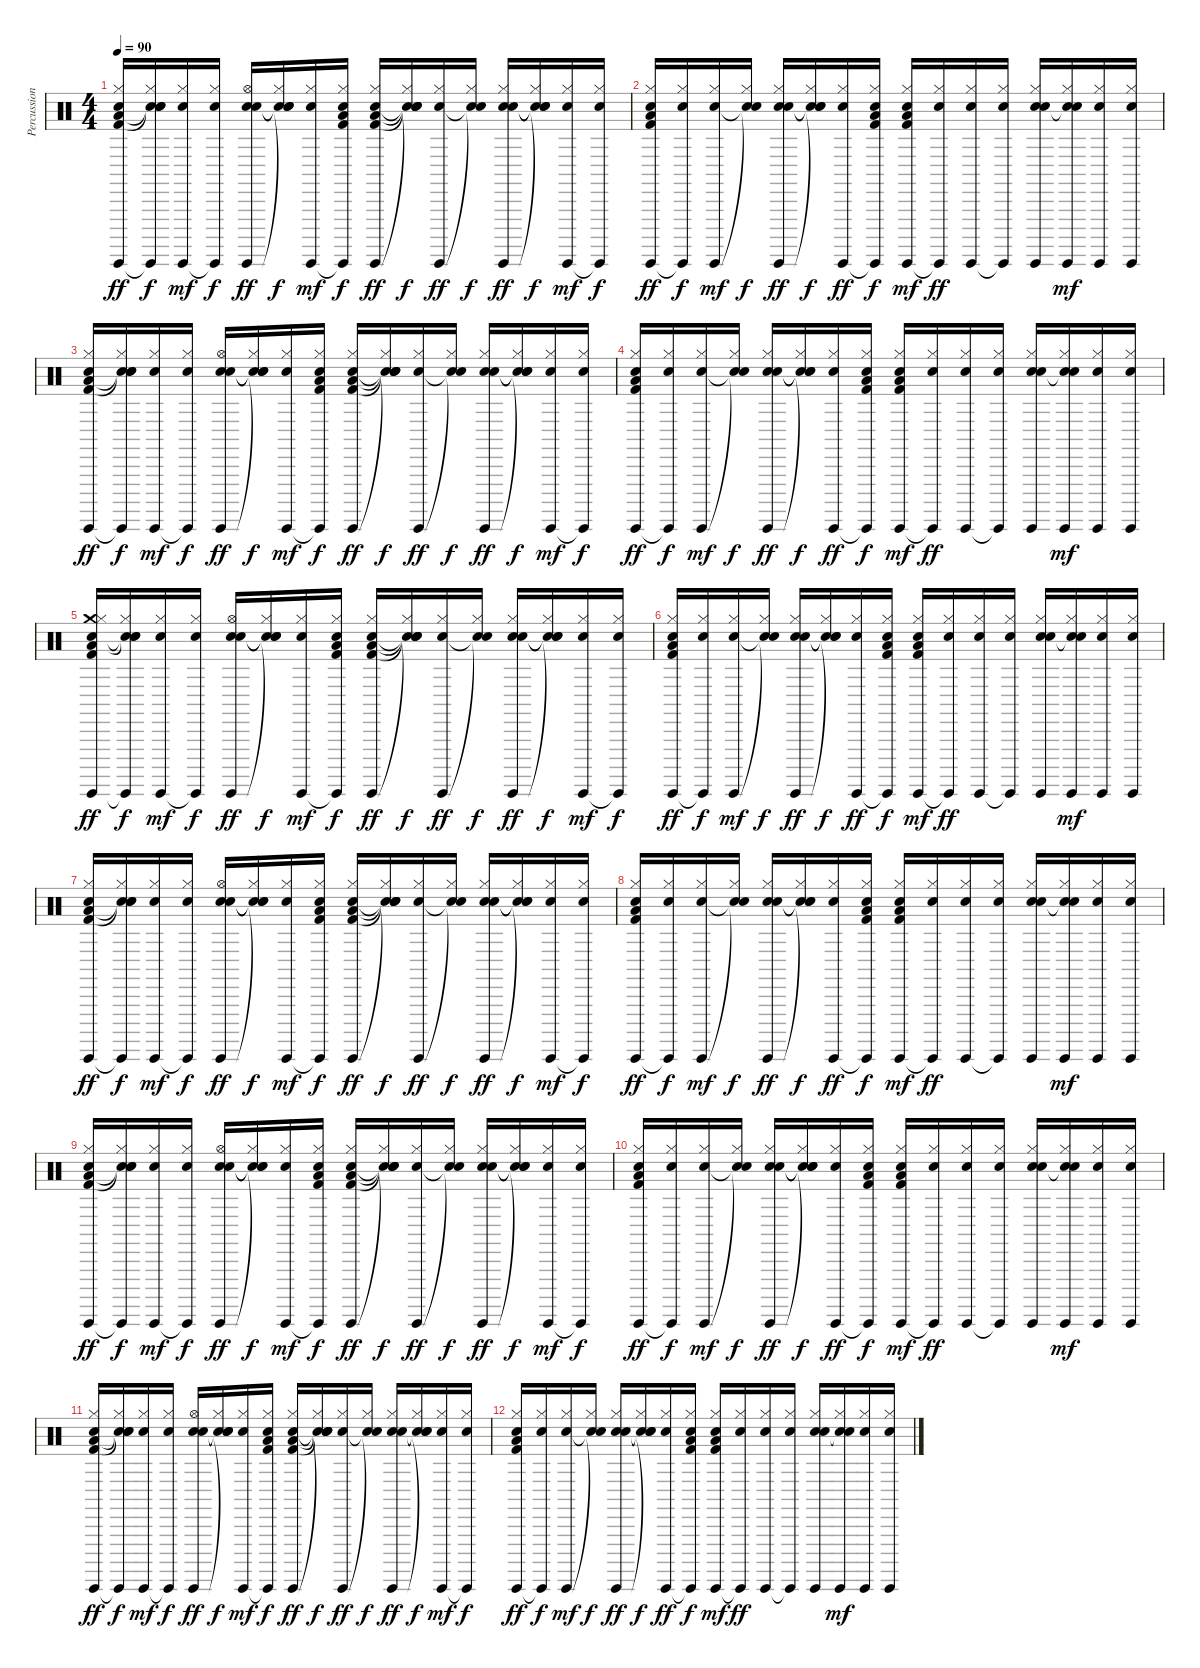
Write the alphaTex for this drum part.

\track ("Percussion" "Percussion") {instrument percussion}
\staff {score}
\articulation defaults
\ts (4 4)
\tempo 90
\clef neutral
\ks c
("Guiro (hit)" "Hi-Hat (closed)" "Hand Clap (hit)" "Low Floor Tom (hit)" "Kick (hit) 2").16{dy ff} ("Guiro (hit)"{t} "Hi-Hat (closed)" "Hand Clap (hit)" "Snare (hit)"{t} "Snare (hit)"{t}).16{dy f} ("Guiro (hit)" "Hi-Hat (closed)" "Hand Clap (hit)").16{dy mf} ("Guiro (hit)"{t} "Hi-Hat (closed)" "Hand Clap (hit)").16{dy f} ("Guiro (hit)" "Hi-Hat (open)" "Hand Clap (hit)" "Snare (hit) 2").16{dy ff} ("Snare (hit)"{t} "Hi-Hat (closed)" "Snare (hit)"{t} "Snare (hit)"{t}).16{dy f} ("Guiro (hit)" "Hi-Hat (closed)" "Hand Clap (hit)").16{dy mf} ("Guiro (hit)"{t} "Hi-Hat (closed)" "Hand Clap (hit)" "Low Floor Tom (hit)" "Kick (hit) 2").16{dy f} ("Guiro (hit)" "Hi-Hat (closed)" "Hand Clap (hit)" "Low Floor Tom (hit)" "Kick (hit) 2").16{dy ff} ("Snare (hit)"{t} "Hi-Hat (closed)" "Snare (hit)"{t} "Snare (hit)"{t} "Snare (hit)"{t}).16{dy f} ("Guiro (hit)" "Hi-Hat (closed)" "Hand Clap (hit)").16{dy ff} ("Snare (hit)"{t} "Hi-Hat (closed)" "Snare (hit)"{t}).16{dy f} ("Guiro (hit)" "Hi-Hat (closed)" "Hand Clap (hit)" "Snare (hit) 2").16{dy ff} ("Snare (hit)"{t} "Hi-Hat (closed)" "Snare (hit)"{t} "Snare (hit)"{t}).16{dy f} ("Guiro (hit)" "Hi-Hat (closed)" "Hand Clap (hit)").16{dy mf} ("Guiro (hit)"{t} "Hi-Hat (closed)" "Hand Clap (hit)").16{dy f} |
("Guiro (hit)" "Hi-Hat (closed)" "Hand Clap (hit)" "Low Floor Tom (hit)" "Kick (hit) 2").16{dy ff} ("Guiro (hit)"{t} "Hi-Hat (closed)" "Hand Clap (hit)").16{dy f} ("Guiro (hit)" "Hi-Hat (closed)" "Hand Clap (hit)").16{dy mf} ("Snare (hit)"{t} "Hi-Hat (closed)" "Snare (hit)"{t}).16{dy f} ("Guiro (hit)" "Hi-Hat (closed)" "Hand Clap (hit)" "Snare (hit) 2").16{dy ff} ("Snare (hit)"{t} "Hi-Hat (closed)" "Snare (hit)"{t} "Snare (hit)"{t}).16{dy f} ("Guiro (hit)" "Hi-Hat (closed)" "Hand Clap (hit)").16{dy ff} ("Guiro (hit)"{t} "Hi-Hat (closed)" "Hand Clap (hit)" "Low Floor Tom (hit)" "Kick (hit) 2").16{dy f} ("Guiro (hit)" "Hi-Hat (closed)" "Hand Clap (hit)" "Low Floor Tom (hit)" "Kick (hit) 2").16{dy mf} ("Guiro (hit)"{t} "Hi-Hat (closed)" "Hand Clap (hit)").16{dy ff} ("Guiro (hit)" "Hi-Hat (closed)" "Hand Clap (hit)").16 ("Guiro (hit)"{t} "Hi-Hat (closed)" "Hand Clap (hit)").16 ("Guiro (hit)" "Hi-Hat (closed)" "Hand Clap (hit)" "Snare (hit) 2").16 ("Guiro (hit)" "Hi-Hat (closed)" "Hand Clap (hit)" "Snare (hit)"{t}).16{dy mf} ("Guiro (hit)" "Hi-Hat (closed)" "Hand Clap (hit)").16 ("Guiro (hit)" "Hi-Hat (closed)" "Hand Clap (hit)").16 |
("Guiro (hit)" "Hi-Hat (closed)" "Hand Clap (hit)" "Low Floor Tom (hit)" "Kick (hit) 2").16{dy ff} ("Guiro (hit)"{t} "Hi-Hat (closed)" "Hand Clap (hit)" "Snare (hit)"{t} "Snare (hit)"{t}).16{dy f} ("Guiro (hit)" "Hi-Hat (closed)" "Hand Clap (hit)").16{dy mf} ("Guiro (hit)"{t} "Hi-Hat (closed)" "Hand Clap (hit)").16{dy f} ("Guiro (hit)" "Hi-Hat (open)" "Hand Clap (hit)" "Snare (hit) 2").16{dy ff} ("Snare (hit)"{t} "Hi-Hat (closed)" "Snare (hit)"{t} "Snare (hit)"{t}).16{dy f} ("Guiro (hit)" "Hi-Hat (closed)" "Hand Clap (hit)").16{dy mf} ("Guiro (hit)"{t} "Hi-Hat (closed)" "Hand Clap (hit)" "Low Floor Tom (hit)" "Kick (hit) 2").16{dy f} ("Guiro (hit)" "Hi-Hat (closed)" "Hand Clap (hit)" "Low Floor Tom (hit)" "Kick (hit) 2").16{dy ff} ("Snare (hit)"{t} "Hi-Hat (closed)" "Snare (hit)"{t} "Snare (hit)"{t} "Snare (hit)"{t}).16{dy f} ("Guiro (hit)" "Hi-Hat (closed)" "Hand Clap (hit)").16{dy ff} ("Snare (hit)"{t} "Hi-Hat (closed)" "Snare (hit)"{t}).16{dy f} ("Guiro (hit)" "Hi-Hat (closed)" "Hand Clap (hit)" "Snare (hit) 2").16{dy ff} ("Snare (hit)"{t} "Hi-Hat (closed)" "Snare (hit)"{t} "Snare (hit)"{t}).16{dy f} ("Guiro (hit)" "Hi-Hat (closed)" "Hand Clap (hit)").16{dy mf} ("Guiro (hit)"{t} "Hi-Hat (closed)" "Hand Clap (hit)").16{dy f} |
("Guiro (hit)" "Hi-Hat (closed)" "Hand Clap (hit)" "Low Floor Tom (hit)" "Kick (hit) 2").16{dy ff} ("Guiro (hit)"{t} "Hi-Hat (closed)" "Hand Clap (hit)").16{dy f} ("Guiro (hit)" "Hi-Hat (closed)" "Hand Clap (hit)").16{dy mf} ("Snare (hit)"{t} "Hi-Hat (closed)" "Snare (hit)"{t}).16{dy f} ("Guiro (hit)" "Hi-Hat (closed)" "Hand Clap (hit)" "Snare (hit) 2").16{dy ff} ("Snare (hit)"{t} "Hi-Hat (closed)" "Snare (hit)"{t} "Snare (hit)"{t}).16{dy f} ("Guiro (hit)" "Hi-Hat (closed)" "Hand Clap (hit)").16{dy ff} ("Guiro (hit)"{t} "Hi-Hat (closed)" "Hand Clap (hit)" "Low Floor Tom (hit)" "Kick (hit) 2").16{dy f} ("Guiro (hit)" "Hi-Hat (closed)" "Hand Clap (hit)" "Low Floor Tom (hit)" "Kick (hit) 2").16{dy mf} ("Guiro (hit)"{t} "Hi-Hat (closed)" "Hand Clap (hit)").16{dy ff} ("Guiro (hit)" "Hi-Hat (closed)" "Hand Clap (hit)").16 ("Guiro (hit)"{t} "Hi-Hat (closed)" "Hand Clap (hit)").16 ("Guiro (hit)" "Hi-Hat (closed)" "Hand Clap (hit)" "Snare (hit) 2").16 ("Guiro (hit)" "Hi-Hat (closed)" "Hand Clap (hit)" "Snare (hit)"{t}).16{dy mf} ("Guiro (hit)" "Hi-Hat (closed)" "Hand Clap (hit)").16 ("Guiro (hit)" "Hi-Hat (closed)" "Hand Clap (hit)").16 |
("Guiro (hit)" "Crash medium (hit)" "Hi-Hat (closed)" "Hand Clap (hit)" "Low Floor Tom (hit)" "Kick (hit) 2").16{dy ff} ("Guiro (hit)"{t} "Hi-Hat (closed)" "Hand Clap (hit)" "Snare (hit)"{t} "Snare (hit)"{t}).16{dy f} ("Guiro (hit)" "Hi-Hat (closed)" "Hand Clap (hit)").16{dy mf} ("Guiro (hit)"{t} "Hi-Hat (closed)" "Hand Clap (hit)").16{dy f} ("Guiro (hit)" "Hi-Hat (open)" "Hand Clap (hit)" "Snare (hit) 2").16{dy ff} ("Snare (hit)"{t} "Hi-Hat (closed)" "Snare (hit)"{t} "Snare (hit)"{t}).16{dy f} ("Guiro (hit)" "Hi-Hat (closed)" "Hand Clap (hit)").16{dy mf} ("Guiro (hit)"{t} "Hi-Hat (closed)" "Hand Clap (hit)" "Low Floor Tom (hit)" "Kick (hit) 2").16{dy f} ("Guiro (hit)" "Hi-Hat (closed)" "Hand Clap (hit)" "Low Floor Tom (hit)" "Kick (hit) 2").16{dy ff} ("Snare (hit)"{t} "Hi-Hat (closed)" "Snare (hit)"{t} "Snare (hit)"{t} "Snare (hit)"{t}).16{dy f} ("Guiro (hit)" "Hi-Hat (closed)" "Hand Clap (hit)").16{dy ff} ("Snare (hit)"{t} "Hi-Hat (closed)" "Snare (hit)"{t}).16{dy f} ("Guiro (hit)" "Hi-Hat (closed)" "Hand Clap (hit)" "Snare (hit) 2").16{dy ff} ("Snare (hit)"{t} "Hi-Hat (closed)" "Snare (hit)"{t} "Snare (hit)"{t}).16{dy f} ("Guiro (hit)" "Hi-Hat (closed)" "Hand Clap (hit)").16{dy mf} ("Guiro (hit)"{t} "Hi-Hat (closed)" "Hand Clap (hit)").16{dy f} |
("Guiro (hit)" "Hi-Hat (closed)" "Hand Clap (hit)" "Low Floor Tom (hit)" "Kick (hit) 2").16{dy ff} ("Guiro (hit)"{t} "Hi-Hat (closed)" "Hand Clap (hit)").16{dy f} ("Guiro (hit)" "Hi-Hat (closed)" "Hand Clap (hit)").16{dy mf} ("Snare (hit)"{t} "Hi-Hat (closed)" "Snare (hit)"{t}).16{dy f} ("Guiro (hit)" "Hi-Hat (closed)" "Hand Clap (hit)" "Snare (hit) 2").16{dy ff} ("Snare (hit)"{t} "Hi-Hat (closed)" "Snare (hit)"{t} "Snare (hit)"{t}).16{dy f} ("Guiro (hit)" "Hi-Hat (closed)" "Hand Clap (hit)").16{dy ff} ("Guiro (hit)"{t} "Hi-Hat (closed)" "Hand Clap (hit)" "Low Floor Tom (hit)" "Kick (hit) 2").16{dy f} ("Guiro (hit)" "Hi-Hat (closed)" "Hand Clap (hit)" "Low Floor Tom (hit)" "Kick (hit) 2").16{dy mf} ("Guiro (hit)"{t} "Hi-Hat (closed)" "Hand Clap (hit)").16{dy ff} ("Guiro (hit)" "Hi-Hat (closed)" "Hand Clap (hit)").16 ("Guiro (hit)"{t} "Hi-Hat (closed)" "Hand Clap (hit)").16 ("Guiro (hit)" "Hi-Hat (closed)" "Hand Clap (hit)" "Snare (hit) 2").16 ("Guiro (hit)" "Hi-Hat (closed)" "Hand Clap (hit)" "Snare (hit)"{t}).16{dy mf} ("Guiro (hit)" "Hi-Hat (closed)" "Hand Clap (hit)").16 ("Guiro (hit)" "Hi-Hat (closed)" "Hand Clap (hit)").16 |
("Guiro (hit)" "Hi-Hat (closed)" "Hand Clap (hit)" "Low Floor Tom (hit)" "Kick (hit) 2").16{dy ff} ("Guiro (hit)"{t} "Hi-Hat (closed)" "Hand Clap (hit)" "Snare (hit)"{t} "Snare (hit)"{t}).16{dy f} ("Guiro (hit)" "Hi-Hat (closed)" "Hand Clap (hit)").16{dy mf} ("Guiro (hit)"{t} "Hi-Hat (closed)" "Hand Clap (hit)").16{dy f} ("Guiro (hit)" "Hi-Hat (open)" "Hand Clap (hit)" "Snare (hit) 2").16{dy ff} ("Snare (hit)"{t} "Hi-Hat (closed)" "Snare (hit)"{t} "Snare (hit)"{t}).16{dy f} ("Guiro (hit)" "Hi-Hat (closed)" "Hand Clap (hit)").16{dy mf} ("Guiro (hit)"{t} "Hi-Hat (closed)" "Hand Clap (hit)" "Low Floor Tom (hit)" "Kick (hit) 2").16{dy f} ("Guiro (hit)" "Hi-Hat (closed)" "Hand Clap (hit)" "Low Floor Tom (hit)" "Kick (hit) 2").16{dy ff} ("Snare (hit)"{t} "Hi-Hat (closed)" "Snare (hit)"{t} "Snare (hit)"{t} "Snare (hit)"{t}).16{dy f} ("Guiro (hit)" "Hi-Hat (closed)" "Hand Clap (hit)").16{dy ff} ("Snare (hit)"{t} "Hi-Hat (closed)" "Snare (hit)"{t}).16{dy f} ("Guiro (hit)" "Hi-Hat (closed)" "Hand Clap (hit)" "Snare (hit) 2").16{dy ff} ("Snare (hit)"{t} "Hi-Hat (closed)" "Snare (hit)"{t} "Snare (hit)"{t}).16{dy f} ("Guiro (hit)" "Hi-Hat (closed)" "Hand Clap (hit)").16{dy mf} ("Guiro (hit)"{t} "Hi-Hat (closed)" "Hand Clap (hit)").16{dy f} |
("Guiro (hit)" "Hi-Hat (closed)" "Hand Clap (hit)" "Low Floor Tom (hit)" "Kick (hit) 2").16{dy ff} ("Guiro (hit)"{t} "Hi-Hat (closed)" "Hand Clap (hit)").16{dy f} ("Guiro (hit)" "Hi-Hat (closed)" "Hand Clap (hit)").16{dy mf} ("Snare (hit)"{t} "Hi-Hat (closed)" "Snare (hit)"{t}).16{dy f} ("Guiro (hit)" "Hi-Hat (closed)" "Hand Clap (hit)" "Snare (hit) 2").16{dy ff} ("Snare (hit)"{t} "Hi-Hat (closed)" "Snare (hit)"{t} "Snare (hit)"{t}).16{dy f} ("Guiro (hit)" "Hi-Hat (closed)" "Hand Clap (hit)").16{dy ff} ("Guiro (hit)"{t} "Hi-Hat (closed)" "Hand Clap (hit)" "Low Floor Tom (hit)" "Kick (hit) 2").16{dy f} ("Guiro (hit)" "Hi-Hat (closed)" "Hand Clap (hit)" "Low Floor Tom (hit)" "Kick (hit) 2").16{dy mf} ("Guiro (hit)"{t} "Hi-Hat (closed)" "Hand Clap (hit)").16{dy ff} ("Guiro (hit)" "Hi-Hat (closed)" "Hand Clap (hit)").16 ("Guiro (hit)"{t} "Hi-Hat (closed)" "Hand Clap (hit)").16 ("Guiro (hit)" "Hi-Hat (closed)" "Hand Clap (hit)" "Snare (hit) 2").16 ("Guiro (hit)" "Hi-Hat (closed)" "Hand Clap (hit)" "Snare (hit)"{t}).16{dy mf} ("Guiro (hit)" "Hi-Hat (closed)" "Hand Clap (hit)").16 ("Guiro (hit)" "Hi-Hat (closed)" "Hand Clap (hit)").16 |
("Guiro (hit)" "Hi-Hat (closed)" "Hand Clap (hit)" "Low Floor Tom (hit)" "Kick (hit) 2").16{dy ff} ("Guiro (hit)"{t} "Hi-Hat (closed)" "Hand Clap (hit)" "Snare (hit)"{t} "Snare (hit)"{t}).16{dy f} ("Guiro (hit)" "Hi-Hat (closed)" "Hand Clap (hit)").16{dy mf} ("Guiro (hit)"{t} "Hi-Hat (closed)" "Hand Clap (hit)").16{dy f} ("Guiro (hit)" "Hi-Hat (open)" "Hand Clap (hit)" "Snare (hit) 2").16{dy ff} ("Snare (hit)"{t} "Hi-Hat (closed)" "Snare (hit)"{t} "Snare (hit)"{t}).16{dy f} ("Guiro (hit)" "Hi-Hat (closed)" "Hand Clap (hit)").16{dy mf} ("Guiro (hit)"{t} "Hi-Hat (closed)" "Hand Clap (hit)" "Low Floor Tom (hit)" "Kick (hit) 2").16{dy f} ("Guiro (hit)" "Hi-Hat (closed)" "Hand Clap (hit)" "Low Floor Tom (hit)" "Kick (hit) 2").16{dy ff} ("Snare (hit)"{t} "Hi-Hat (closed)" "Snare (hit)"{t} "Snare (hit)"{t} "Snare (hit)"{t}).16{dy f} ("Guiro (hit)" "Hi-Hat (closed)" "Hand Clap (hit)").16{dy ff} ("Snare (hit)"{t} "Hi-Hat (closed)" "Snare (hit)"{t}).16{dy f} ("Guiro (hit)" "Hi-Hat (closed)" "Hand Clap (hit)" "Snare (hit) 2").16{dy ff} ("Snare (hit)"{t} "Hi-Hat (closed)" "Snare (hit)"{t} "Snare (hit)"{t}).16{dy f} ("Guiro (hit)" "Hi-Hat (closed)" "Hand Clap (hit)").16{dy mf} ("Guiro (hit)"{t} "Hi-Hat (closed)" "Hand Clap (hit)").16{dy f} |
("Guiro (hit)" "Hi-Hat (closed)" "Hand Clap (hit)" "Low Floor Tom (hit)" "Kick (hit) 2").16{dy ff} ("Guiro (hit)"{t} "Hi-Hat (closed)" "Hand Clap (hit)").16{dy f} ("Guiro (hit)" "Hi-Hat (closed)" "Hand Clap (hit)").16{dy mf} ("Snare (hit)"{t} "Hi-Hat (closed)" "Snare (hit)"{t}).16{dy f} ("Guiro (hit)" "Hi-Hat (closed)" "Hand Clap (hit)" "Snare (hit) 2").16{dy ff} ("Snare (hit)"{t} "Hi-Hat (closed)" "Snare (hit)"{t} "Snare (hit)"{t}).16{dy f} ("Guiro (hit)" "Hi-Hat (closed)" "Hand Clap (hit)").16{dy ff} ("Guiro (hit)"{t} "Hi-Hat (closed)" "Hand Clap (hit)" "Low Floor Tom (hit)" "Kick (hit) 2").16{dy f} ("Guiro (hit)" "Hi-Hat (closed)" "Hand Clap (hit)" "Low Floor Tom (hit)" "Kick (hit) 2").16{dy mf} ("Guiro (hit)"{t} "Hi-Hat (closed)" "Hand Clap (hit)").16{dy ff} ("Guiro (hit)" "Hi-Hat (closed)" "Hand Clap (hit)").16 ("Guiro (hit)"{t} "Hi-Hat (closed)" "Hand Clap (hit)").16 ("Guiro (hit)" "Hi-Hat (closed)" "Hand Clap (hit)" "Snare (hit) 2").16 ("Guiro (hit)" "Hi-Hat (closed)" "Hand Clap (hit)" "Snare (hit)"{t}).16{dy mf} ("Guiro (hit)" "Hi-Hat (closed)" "Hand Clap (hit)").16 ("Guiro (hit)" "Hi-Hat (closed)" "Hand Clap (hit)").16 |
("Guiro (hit)" "Hi-Hat (closed)" "Hand Clap (hit)" "Low Floor Tom (hit)" "Kick (hit) 2").16{dy ff} ("Guiro (hit)"{t} "Hi-Hat (closed)" "Hand Clap (hit)" "Snare (hit)"{t} "Snare (hit)"{t}).16{dy f} ("Guiro (hit)" "Hi-Hat (closed)" "Hand Clap (hit)").16{dy mf} ("Guiro (hit)"{t} "Hi-Hat (closed)" "Hand Clap (hit)").16{dy f} ("Guiro (hit)" "Hi-Hat (open)" "Hand Clap (hit)" "Snare (hit) 2").16{dy ff} ("Snare (hit)"{t} "Hi-Hat (closed)" "Snare (hit)"{t} "Snare (hit)"{t}).16{dy f} ("Guiro (hit)" "Hi-Hat (closed)" "Hand Clap (hit)").16{dy mf} ("Guiro (hit)"{t} "Hi-Hat (closed)" "Hand Clap (hit)" "Low Floor Tom (hit)" "Kick (hit) 2").16{dy f} ("Guiro (hit)" "Hi-Hat (closed)" "Hand Clap (hit)" "Low Floor Tom (hit)" "Kick (hit) 2").16{dy ff} ("Snare (hit)"{t} "Hi-Hat (closed)" "Snare (hit)"{t} "Snare (hit)"{t} "Snare (hit)"{t}).16{dy f} ("Guiro (hit)" "Hi-Hat (closed)" "Hand Clap (hit)").16{dy ff} ("Snare (hit)"{t} "Hi-Hat (closed)" "Snare (hit)"{t}).16{dy f} ("Guiro (hit)" "Hi-Hat (closed)" "Hand Clap (hit)" "Snare (hit) 2").16{dy ff} ("Snare (hit)"{t} "Hi-Hat (closed)" "Snare (hit)"{t} "Snare (hit)"{t}).16{dy f} ("Guiro (hit)" "Hi-Hat (closed)" "Hand Clap (hit)").16{dy mf} ("Guiro (hit)"{t} "Hi-Hat (closed)" "Hand Clap (hit)").16{dy f} |
("Guiro (hit)" "Hi-Hat (closed)" "Hand Clap (hit)" "Low Floor Tom (hit)" "Kick (hit) 2").16{dy ff} ("Guiro (hit)"{t} "Hi-Hat (closed)" "Hand Clap (hit)").16{dy f} ("Guiro (hit)" "Hi-Hat (closed)" "Hand Clap (hit)").16{dy mf} ("Snare (hit)"{t} "Hi-Hat (closed)" "Snare (hit)"{t}).16{dy f} ("Guiro (hit)" "Hi-Hat (closed)" "Hand Clap (hit)" "Snare (hit) 2").16{dy ff} ("Snare (hit)"{t} "Hi-Hat (closed)" "Snare (hit)"{t} "Snare (hit)"{t}).16{dy f} ("Guiro (hit)" "Hi-Hat (closed)" "Hand Clap (hit)").16{dy ff} ("Guiro (hit)"{t} "Hi-Hat (closed)" "Hand Clap (hit)" "Low Floor Tom (hit)" "Kick (hit) 2").16{dy f} ("Guiro (hit)" "Hi-Hat (closed)" "Hand Clap (hit)" "Low Floor Tom (hit)" "Kick (hit) 2").16{dy mf} ("Guiro (hit)"{t} "Hi-Hat (closed)" "Hand Clap (hit)").16{dy ff} ("Guiro (hit)" "Hi-Hat (closed)" "Hand Clap (hit)").16 ("Guiro (hit)"{t} "Hi-Hat (closed)" "Hand Clap (hit)").16 ("Guiro (hit)" "Hi-Hat (closed)" "Hand Clap (hit)" "Snare (hit) 2").16 ("Guiro (hit)" "Hi-Hat (closed)" "Hand Clap (hit)" "Snare (hit)"{t}).16{dy mf} ("Guiro (hit)" "Hi-Hat (closed)" "Hand Clap (hit)").16 ("Guiro (hit)" "Hi-Hat (closed)" "Hand Clap (hit)").16
